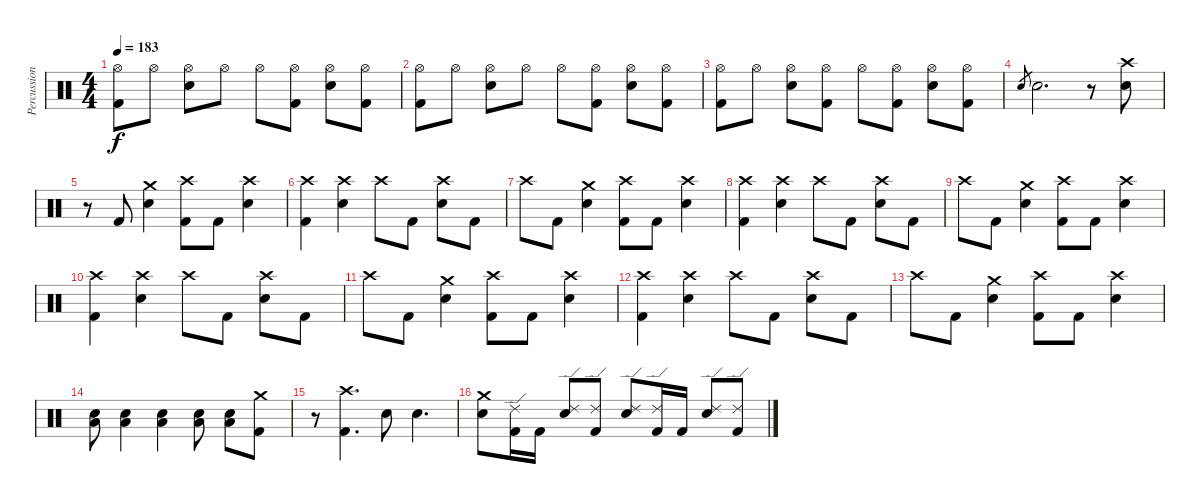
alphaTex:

\track ("Percussion" "Percussion") {instrument percussion}
\staff {score}
\articulation defaults
\ts (4 4)
\tempo 183
\clef neutral
\ks c
("Hi-Hat (open)" "Kick (hit) 2").8{dy f} "Hi-Hat (open)".8 ("Hi-Hat (open)" "Snare (hit) 2").8 "Hi-Hat (open)".8 "Hi-Hat (open)".8 ("Hi-Hat (open)" "Kick (hit) 2").8 ("Hi-Hat (open)" "Snare (hit) 2").8 ("Hi-Hat (open)" "Kick (hit) 2").8 |
("Hi-Hat (open)" "Kick (hit) 2").8 "Hi-Hat (open)".8 ("Hi-Hat (open)" "Snare (hit) 2").8 "Hi-Hat (open)".8 "Hi-Hat (open)".8 ("Hi-Hat (open)" "Kick (hit) 2").8 ("Hi-Hat (open)" "Snare (hit) 2").8 ("Hi-Hat (open)" "Kick (hit) 2").8 |
("Hi-Hat (open)" "Kick (hit) 2").8 "Hi-Hat (open)".8 ("Hi-Hat (open)" "Snare (hit) 2").8 ("Hi-Hat (open)" "Kick (hit) 2").8 "Hi-Hat (open)".8 ("Hi-Hat (open)" "Kick (hit) 2").8 ("Hi-Hat (open)" "Snare (hit) 2").8 ("Hi-Hat (open)" "Kick (hit) 2").8 |
"Snare (hit) 2".8{gr} "Snare (hit) 2".2{d} r.8 ("Crash high (hit)" "Snare (hit) 2").8 |
r.8 "Kick (hit) 2".8 ("Crash medium (hit)" "Snare (hit) 2").4 ("Crash high (hit)" "Kick (hit) 2").8 "Kick (hit) 2".8 ("Crash high (hit)" "Snare (hit) 2").4 |
("Crash high (hit)" "Kick (hit) 2").4 ("Crash high (hit)" "Snare (hit) 2").4 "Crash high (hit)".8 "Kick (hit) 2".8 ("Crash high (hit)" "Snare (hit) 2").8 "Kick (hit) 2".8 |
"Crash high (hit)".8 "Kick (hit) 2".8 ("Crash medium (hit)" "Snare (hit) 2").4 ("Crash high (hit)" "Kick (hit) 2").8 "Kick (hit) 2".8 ("Crash high (hit)" "Snare (hit) 2").4 |
("Crash high (hit)" "Kick (hit) 2").4 ("Crash high (hit)" "Snare (hit) 2").4 "Crash high (hit)".8 "Kick (hit) 2".8 ("Crash high (hit)" "Snare (hit) 2").8 "Kick (hit) 2".8 |
"Crash high (hit)".8 "Kick (hit) 2".8 ("Crash medium (hit)" "Snare (hit) 2").4 ("Crash high (hit)" "Kick (hit) 2").8 "Kick (hit) 2".8 ("Crash high (hit)" "Snare (hit) 2").4 |
("Crash high (hit)" "Kick (hit) 2").4 ("Crash high (hit)" "Snare (hit) 2").4 "Crash high (hit)".8 "Kick (hit) 2".8 ("Crash high (hit)" "Snare (hit) 2").8 "Kick (hit) 2".8 |
"Crash high (hit)".8 "Kick (hit) 2".8 ("Crash medium (hit)" "Snare (hit) 2").4 ("Crash high (hit)" "Kick (hit) 2").8 "Kick (hit) 2".8 ("Crash high (hit)" "Snare (hit) 2").4 |
("Crash high (hit)" "Kick (hit) 2").4 ("Crash high (hit)" "Snare (hit) 2").4 "Crash high (hit)".8 "Kick (hit) 2".8 ("Crash high (hit)" "Snare (hit) 2").8 "Kick (hit) 2".8 |
"Crash high (hit)".8 "Kick (hit) 2".8 ("Crash medium (hit)" "Snare (hit) 2").4 ("Crash high (hit)" "Kick (hit) 2").8 "Kick (hit) 2".8 ("Crash high (hit)" "Snare (hit) 2").4 |
("Low Floor Tom (hit)" "Snare (hit) 2").8 ("Low Floor Tom (hit)" "Snare (hit) 2").4 ("Low Floor Tom (hit)" "Snare (hit) 2").4 ("Low Floor Tom (hit)" "Snare (hit) 2").8 ("Low Floor Tom (hit)" "Snare (hit) 2").8 ("Crash medium (hit)" "Kick (hit) 2").8 |
r.8 ("Crash high (hit)" "Kick (hit) 2").4{d} "Snare (hit) 2".8 "Snare (hit) 2".4{d} |
("Crash medium (hit)" "Snare (hit) 2").8 ("Ride (edge) 2" "Kick (hit) 2").16 "Kick (hit) 2".16 ("Ride (edge) 2" "Snare (hit) 2").8 ("Ride (edge) 2" "Kick (hit) 2").8 ("Ride (edge) 2" "Snare (hit) 2").8 ("Ride (edge) 2" "Kick (hit) 2").16 "Kick (hit) 2".16 ("Ride (edge) 2" "Snare (hit) 2").8 ("Ride (edge) 2" "Kick (hit) 2").8
